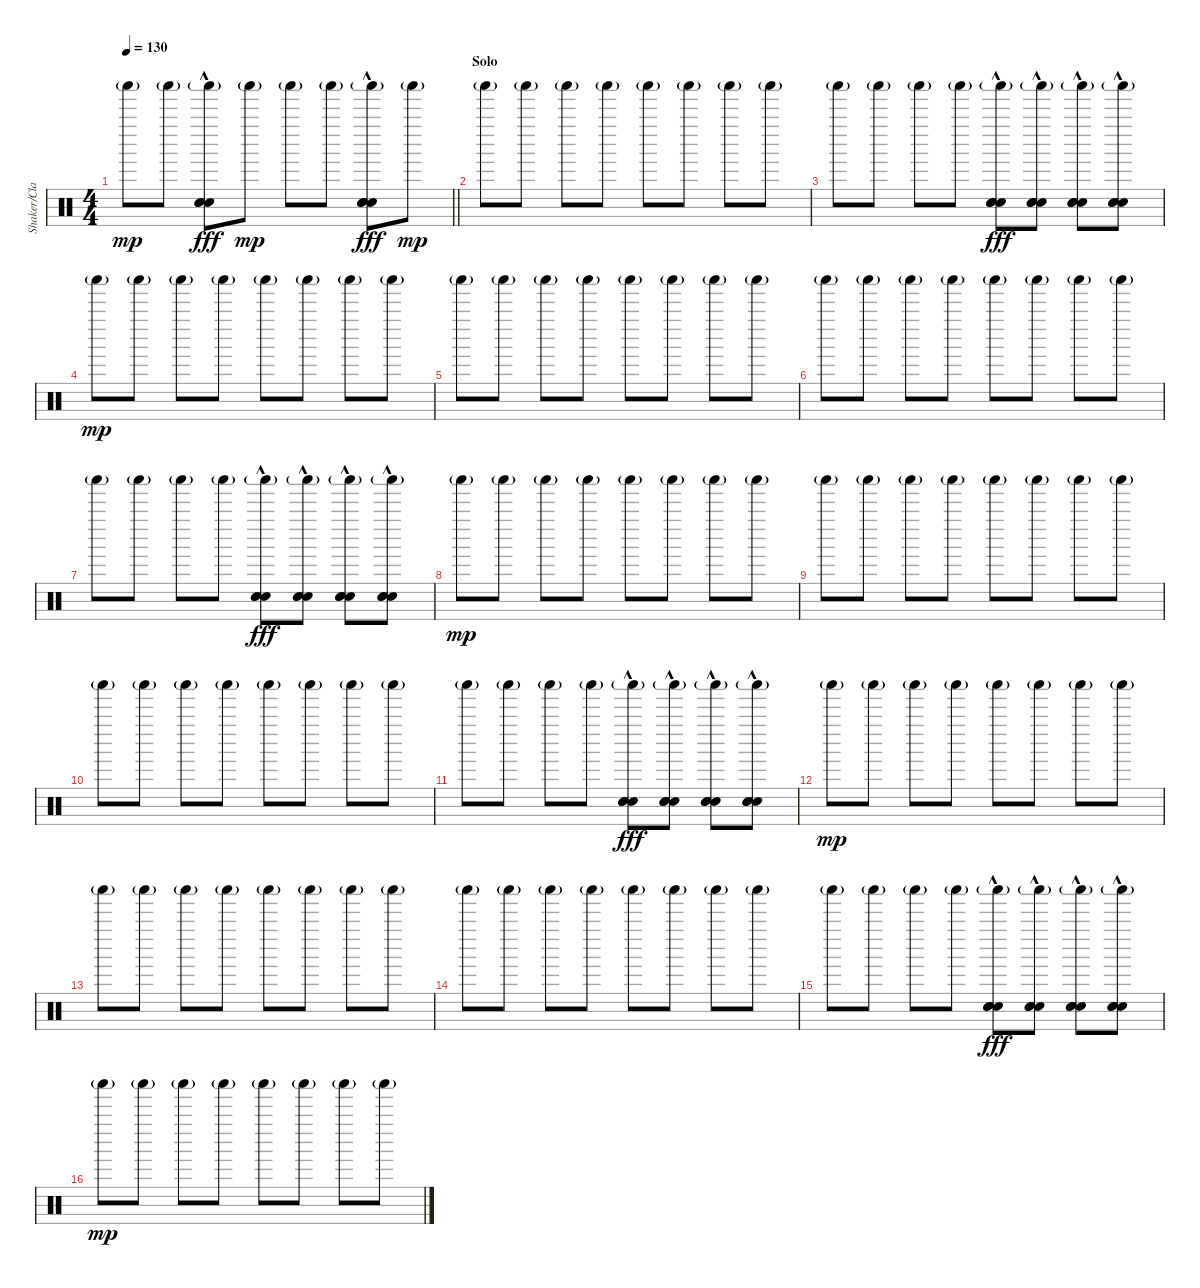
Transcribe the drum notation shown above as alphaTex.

\track ("Shaker/Claps" "Shaker/Cla") {instrument percussion}
\staff {score}
\articulation defaults
\ts (4 4)
\tempo 130
\clef neutral
\barLineRight lightlight
\ks c "Shaker (hit)"{g}.8{dy mp} "Shaker (hit)"{g}.8
("Shaker (hit)"{g} "Hand Clap (hit)"{hac} "Hand Clap (hit)"{hac} "Hand Clap (hit)"{hac}).8{dy fff} "Shaker (hit)"{g}.8{dy mp} "Shaker (hit)"{g}.8 "Shaker (hit)"{g}.8 ("Shaker (hit)"{g} "Hand Clap (hit)"{hac} "Hand Clap (hit)"{hac} "Hand Clap (hit)"{hac}).8{dy fff} "Shaker (hit)"{g}.8{dy mp} |
\section ("" "Solo")
"Shaker (hit)"{g}.8 "Shaker (hit)"{g}.8 "Shaker (hit)"{g}.8 "Shaker (hit)"{g}.8 "Shaker (hit)"{g}.8 "Shaker (hit)"{g}.8 "Shaker (hit)"{g}.8 "Shaker (hit)"{g}.8 |
"Shaker (hit)"{g}.8 "Shaker (hit)"{g}.8 "Shaker (hit)"{g}.8 "Shaker (hit)"{g}.8 ("Shaker (hit)"{g} "Hand Clap (hit)" "Hand Clap (hit)"{hac} "Hand Clap (hit)"{hac}).8{dy fff} ("Shaker (hit)"{g} "Hand Clap (hit)"{hac} "Hand Clap (hit)"{hac} "Hand Clap (hit)"{hac}).8 ("Shaker (hit)"{g} "Hand Clap (hit)"{hac} "Hand Clap (hit)"{hac} "Hand Clap (hit)"{hac}).8 ("Shaker (hit)"{g} "Hand Clap (hit)"{hac} "Hand Clap (hit)"{hac} "Hand Clap (hit)"{hac}).8 |
"Shaker (hit)"{g}.8{dy mp} "Shaker (hit)"{g}.8 "Shaker (hit)"{g}.8 "Shaker (hit)"{g}.8 "Shaker (hit)"{g}.8 "Shaker (hit)"{g}.8 "Shaker (hit)"{g}.8 "Shaker (hit)"{g}.8 |
"Shaker (hit)"{g}.8 "Shaker (hit)"{g}.8 "Shaker (hit)"{g}.8 "Shaker (hit)"{g}.8 "Shaker (hit)"{g}.8 "Shaker (hit)"{g}.8 "Shaker (hit)"{g}.8 "Shaker (hit)"{g}.8 |
"Shaker (hit)"{g}.8 "Shaker (hit)"{g}.8 "Shaker (hit)"{g}.8 "Shaker (hit)"{g}.8 "Shaker (hit)"{g}.8 "Shaker (hit)"{g}.8 "Shaker (hit)"{g}.8 "Shaker (hit)"{g}.8 |
"Shaker (hit)"{g}.8 "Shaker (hit)"{g}.8 "Shaker (hit)"{g}.8 "Shaker (hit)"{g}.8 ("Shaker (hit)"{g} "Hand Clap (hit)" "Hand Clap (hit)"{hac} "Hand Clap (hit)"{hac}).8{dy fff} ("Shaker (hit)"{g} "Hand Clap (hit)"{hac} "Hand Clap (hit)"{hac} "Hand Clap (hit)"{hac}).8 ("Shaker (hit)"{g} "Hand Clap (hit)"{hac} "Hand Clap (hit)"{hac} "Hand Clap (hit)"{hac}).8 ("Shaker (hit)"{g} "Hand Clap (hit)"{hac} "Hand Clap (hit)"{hac} "Hand Clap (hit)"{hac}).8 |
"Shaker (hit)"{g}.8{dy mp} "Shaker (hit)"{g}.8 "Shaker (hit)"{g}.8 "Shaker (hit)"{g}.8 "Shaker (hit)"{g}.8 "Shaker (hit)"{g}.8 "Shaker (hit)"{g}.8 "Shaker (hit)"{g}.8 |
"Shaker (hit)"{g}.8 "Shaker (hit)"{g}.8 "Shaker (hit)"{g}.8 "Shaker (hit)"{g}.8 "Shaker (hit)"{g}.8 "Shaker (hit)"{g}.8 "Shaker (hit)"{g}.8 "Shaker (hit)"{g}.8 |
"Shaker (hit)"{g}.8 "Shaker (hit)"{g}.8 "Shaker (hit)"{g}.8 "Shaker (hit)"{g}.8 "Shaker (hit)"{g}.8 "Shaker (hit)"{g}.8 "Shaker (hit)"{g}.8 "Shaker (hit)"{g}.8 |
"Shaker (hit)"{g}.8 "Shaker (hit)"{g}.8 "Shaker (hit)"{g}.8 "Shaker (hit)"{g}.8 ("Shaker (hit)"{g} "Hand Clap (hit)" "Hand Clap (hit)"{hac} "Hand Clap (hit)"{hac}).8{dy fff} ("Shaker (hit)"{g} "Hand Clap (hit)"{hac} "Hand Clap (hit)"{hac} "Hand Clap (hit)"{hac}).8 ("Shaker (hit)"{g} "Hand Clap (hit)"{hac} "Hand Clap (hit)"{hac} "Hand Clap (hit)"{hac}).8 ("Shaker (hit)"{g} "Hand Clap (hit)"{hac} "Hand Clap (hit)"{hac} "Hand Clap (hit)"{hac}).8 |
"Shaker (hit)"{g}.8{dy mp} "Shaker (hit)"{g}.8 "Shaker (hit)"{g}.8 "Shaker (hit)"{g}.8 "Shaker (hit)"{g}.8 "Shaker (hit)"{g}.8 "Shaker (hit)"{g}.8 "Shaker (hit)"{g}.8 |
"Shaker (hit)"{g}.8 "Shaker (hit)"{g}.8 "Shaker (hit)"{g}.8 "Shaker (hit)"{g}.8 "Shaker (hit)"{g}.8 "Shaker (hit)"{g}.8 "Shaker (hit)"{g}.8 "Shaker (hit)"{g}.8 |
"Shaker (hit)"{g}.8 "Shaker (hit)"{g}.8 "Shaker (hit)"{g}.8 "Shaker (hit)"{g}.8 "Shaker (hit)"{g}.8 "Shaker (hit)"{g}.8 "Shaker (hit)"{g}.8 "Shaker (hit)"{g}.8 |
"Shaker (hit)"{g}.8 "Shaker (hit)"{g}.8 "Shaker (hit)"{g}.8 "Shaker (hit)"{g}.8 ("Shaker (hit)"{g} "Hand Clap (hit)" "Hand Clap (hit)"{hac} "Hand Clap (hit)"{hac}).8{dy fff} ("Shaker (hit)"{g} "Hand Clap (hit)"{hac} "Hand Clap (hit)"{hac} "Hand Clap (hit)"{hac}).8 ("Shaker (hit)"{g} "Hand Clap (hit)"{hac} "Hand Clap (hit)"{hac} "Hand Clap (hit)"{hac}).8 ("Shaker (hit)"{g} "Hand Clap (hit)"{hac} "Hand Clap (hit)"{hac} "Hand Clap (hit)"{hac}).8 |
"Shaker (hit)"{g}.8{dy mp} "Shaker (hit)"{g}.8 "Shaker (hit)"{g}.8 "Shaker (hit)"{g}.8 "Shaker (hit)"{g}.8 "Shaker (hit)"{g}.8 "Shaker (hit)"{g}.8 "Shaker (hit)"{g}.8
